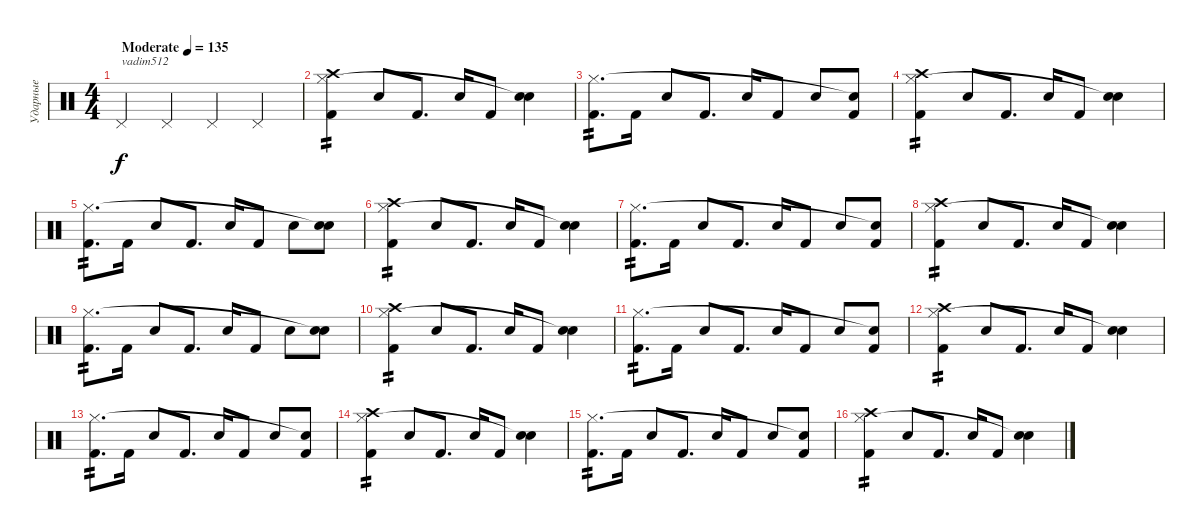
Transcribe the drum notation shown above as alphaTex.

\track ("Ударные" "Ударные") {instrument percussion}
\staff {score}
\articulation defaults
\ts (4 4)
\tempo (135 "Moderate")
\clef neutral
\ks c "Pedal Hi-Hat (hit)".4{txt "vadim512" dy f} "Pedal Hi-Hat (hit)".4 "Pedal Hi-Hat (hit)".4 "Pedal Hi-Hat (hit)".4
|
("Kick (hit) 2" "Hi-Hat (closed)" "Crash high (hit)").4{tp 2} "Electric Snare (hit)".8 "Kick (hit) 2".8{d} "Electric Snare (hit)".16 "Kick (hit) 2".8 ("Electric Snare (hit)" "Snare (hit)"{t}).4 |
("Kick (hit) 2" "Hi-Hat (closed)").8{d tp 2} "Kick (hit) 2".16 "Electric Snare (hit)".8 "Kick (hit) 2".8{d} "Electric Snare (hit)".16 "Kick (hit) 2".8 "Electric Snare (hit)".8 ("Kick (hit) 2" "Electric Snare (hit)"{t}).8 |
("Kick (hit) 2" "Hi-Hat (closed)" "Crash high (hit)").4{tp 2} "Electric Snare (hit)".8 "Kick (hit) 2".8{d} "Electric Snare (hit)".16 "Kick (hit) 2".8 ("Electric Snare (hit)" "Snare (hit)"{t}).4 |
("Kick (hit) 2" "Hi-Hat (closed)").8{d tp 2} "Kick (hit) 2".16 "Electric Snare (hit)".8 "Kick (hit) 2".8{d} "Electric Snare (hit)".16 "Kick (hit) 2".8 "Electric Snare (hit)".8 ("Electric Snare (hit)" "Snare (hit)"{t}).8 |
("Kick (hit) 2" "Hi-Hat (closed)" "Crash high (hit)").4{tp 2} "Electric Snare (hit)".8 "Kick (hit) 2".8{d} "Electric Snare (hit)".16 "Kick (hit) 2".8 ("Electric Snare (hit)" "Snare (hit)"{t}).4 |
("Kick (hit) 2" "Hi-Hat (closed)").8{d tp 2} "Kick (hit) 2".16 "Electric Snare (hit)".8 "Kick (hit) 2".8{d} "Electric Snare (hit)".16 "Kick (hit) 2".8 "Electric Snare (hit)".8 ("Kick (hit) 2" "Electric Snare (hit)"{t}).8 |
("Kick (hit) 2" "Hi-Hat (closed)" "Crash high (hit)").4{tp 2} "Electric Snare (hit)".8 "Kick (hit) 2".8{d} "Electric Snare (hit)".16 "Kick (hit) 2".8 ("Electric Snare (hit)" "Snare (hit)"{t}).4 |
("Kick (hit) 2" "Hi-Hat (closed)").8{d tp 2} "Kick (hit) 2".16 "Electric Snare (hit)".8 "Kick (hit) 2".8{d} "Electric Snare (hit)".16 "Kick (hit) 2".8 "Electric Snare (hit)".8 ("Electric Snare (hit)" "Snare (hit)"{t}).8 |
("Kick (hit) 2" "Hi-Hat (closed)" "Crash high (hit)").4{tp 2} "Electric Snare (hit)".8 "Kick (hit) 2".8{d} "Electric Snare (hit)".16 "Kick (hit) 2".8 ("Electric Snare (hit)" "Snare (hit)"{t}).4 |
("Kick (hit) 2" "Hi-Hat (closed)").8{d tp 2} "Kick (hit) 2".16 "Electric Snare (hit)".8 "Kick (hit) 2".8{d} "Electric Snare (hit)".16 "Kick (hit) 2".8 "Electric Snare (hit)".8 ("Kick (hit) 2" "Snare (hit)"{t}).8 |
("Kick (hit) 2" "Hi-Hat (closed)" "Crash high (hit)").4{tp 2} "Electric Snare (hit)".8 "Kick (hit) 2".8{d} "Electric Snare (hit)".16 "Kick (hit) 2".8 ("Electric Snare (hit)" "Snare (hit)"{t}).4 |
("Kick (hit) 2" "Hi-Hat (closed)").8{d tp 2} "Kick (hit) 2".16 "Electric Snare (hit)".8 "Kick (hit) 2".8{d} "Electric Snare (hit)".16 "Kick (hit) 2".8 "Electric Snare (hit)".8 ("Kick (hit) 2" "Snare (hit)"{t}).8 |
("Kick (hit) 2" "Hi-Hat (closed)" "Crash high (hit)").4{tp 2} "Electric Snare (hit)".8 "Kick (hit) 2".8{d} "Electric Snare (hit)".16 "Kick (hit) 2".8 ("Electric Snare (hit)" "Snare (hit)"{t}).4 |
("Kick (hit) 2" "Hi-Hat (closed)").8{d tp 2} "Kick (hit) 2".16 "Electric Snare (hit)".8 "Kick (hit) 2".8{d} "Electric Snare (hit)".16 "Kick (hit) 2".8 "Electric Snare (hit)".8 ("Kick (hit) 2" "Snare (hit)"{t}).8 |
("Kick (hit) 2" "Hi-Hat (closed)" "Crash high (hit)").4{tp 2} "Electric Snare (hit)".8 "Kick (hit) 2".8{d} "Electric Snare (hit)".16 "Kick (hit) 2".8 ("Electric Snare (hit)" "Snare (hit)"{t}).4
